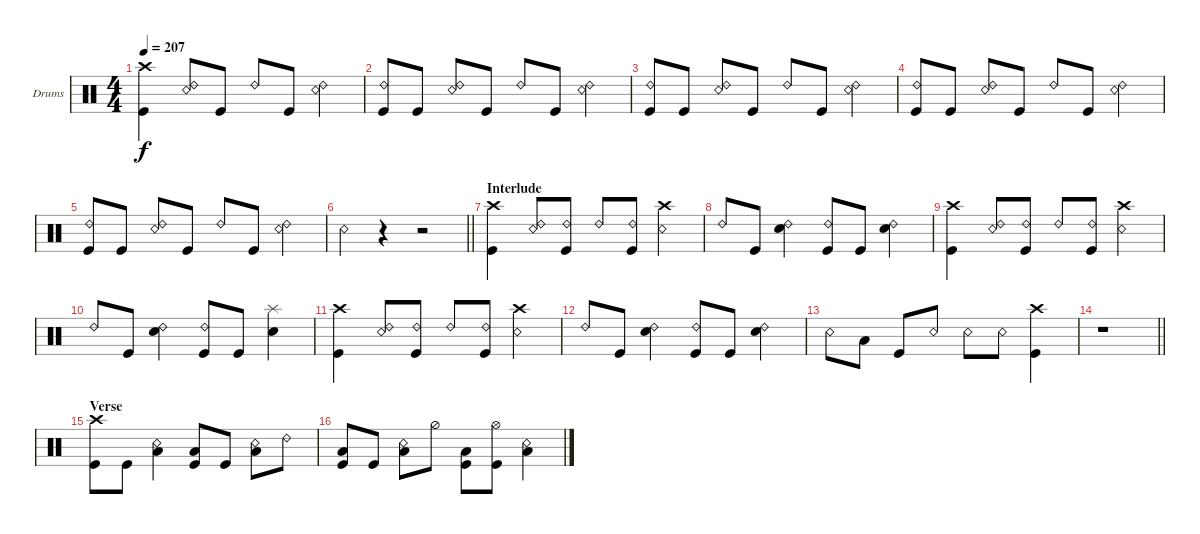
\defaultSystemsLayout 4
\bracketExtendMode groupsimilarinstruments
\firstSystemTrackNameOrientation horizontal
\otherSystemsTrackNameOrientation horizontal
\track ("Drums" "Drums") {instrument percussion}
\staff {score}
\articulation defaults
\ts (4 4)
\tempo 207
\clef neutral
\ks c
("Kick (hit)" "Crash high (hit)").4{dy f} ("Snare (rim shot)" "Ride (bell) 2").8 "Kick (hit)".8 "Ride (bell) 2".8 "Kick (hit)".8 ("Snare (rim shot)" "Ride (bell) 2").4 |
("Kick (hit)" "Ride (bell) 2").8 "Kick (hit)".8 ("Snare (rim shot)" "Ride (bell) 2").8 "Kick (hit)".8 "Ride (bell) 2".8 "Kick (hit)".8 ("Snare (rim shot)" "Ride (bell) 2").4 |
("Kick (hit)" "Ride (bell) 2").8 "Kick (hit)".8 ("Snare (rim shot)" "Ride (bell) 2").8 "Kick (hit)".8 "Ride (bell) 2".8 "Kick (hit)".8 ("Snare (rim shot)" "Ride (bell) 2").4 |
("Kick (hit)" "Ride (bell) 2").8 "Kick (hit)".8 ("Snare (rim shot)" "Ride (bell) 2").8 "Kick (hit)".8 "Ride (bell) 2".8 "Kick (hit)".8 ("Snare (rim shot)" "Ride (bell) 2").4 |
("Kick (hit)" "Ride (bell) 2").8 "Kick (hit)".8 ("Snare (rim shot)" "Ride (bell) 2").8 "Kick (hit)".8 "Ride (bell) 2".8 "Kick (hit)".8 ("Snare (rim shot)" "Ride (bell) 2").4 |
\barLineRight lightlight "Snare (rim shot)".4
r.4 r.2 |
\section ("" "Interlude")
("Crash high (hit)" "Kick (hit)").4 ("Snare (rim shot)" "Ride (bell) 2").8 ("Kick (hit)" "Ride (bell) 2").8 "Ride (bell) 2".8 ("Kick (hit)" "Ride (bell) 2").8 ("Snare (rim shot)" "Crash high (hit)").4 |
"Ride (bell) 2".8 "Kick (hit)".8 ("Ride (bell) 2" "Snare (hit) 2").4 ("Kick (hit)" "Ride (bell) 2").8 "Kick (hit)".8 ("Ride (bell) 2" "Snare (hit) 2").4 |
("Crash high (hit)" "Kick (hit)").4 ("Snare (rim shot)" "Ride (bell) 2").8 ("Kick (hit)" "Ride (bell) 2").8 "Ride (bell) 2".8 ("Kick (hit)" "Ride (bell) 2").8 ("Snare (rim shot)" "Crash high (hit)").4 |
"Ride (bell) 2".8 "Kick (hit)".8 ("Ride (bell) 2" "Snare (hit) 2").4 ("Kick (hit)" "Ride (bell) 2").8 "Kick (hit)".8 ("Snare (hit) 2" "Splash (hit)").4 |
("Crash high (hit)" "Kick (hit)").4 ("Snare (rim shot)" "Ride (bell) 2").8 ("Kick (hit)" "Ride (bell) 2").8 "Ride (bell) 2".8 ("Kick (hit)" "Ride (bell) 2").8 ("Snare (rim shot)" "Crash high (hit)").4 |
"Ride (bell) 2".8 "Kick (hit)".8 ("Ride (bell) 2" "Snare (hit) 2").4 ("Kick (hit)" "Ride (bell) 2").8 "Kick (hit)".8 ("Ride (bell) 2" "Snare (hit) 2").4 |
"Snare (rim shot)".8 "Low Tom (hit)".8 "Kick (hit)".8 "Snare (rim shot)".8 "Snare (rim shot)".8 "Snare (rim shot)".8 ("Kick (hit)" "Crash high (hit)").4 |
\barLineRight lightlight
r.1 |
\section ("" "Verse")
("Kick (hit)" "Crash high (hit)").8 "Kick (hit)".8 ("Snare (rim shot)" "Low Tom (hit)").4 ("Kick (hit)" "Low Tom (hit)").8 "Kick (hit)".8 ("Snare (rim shot)" "Low Tom (hit)").8 "Ride (bell) 2".8 |
("Kick (hit)" "Low Tom (hit)").8 "Kick (hit)".8 ("Snare (rim shot)" "Low Tom (hit)").8 "Hi-Hat (half)".8 ("Kick (hit)" "Low Tom (hit)").8 ("Kick (hit)" "Hi-Hat (open)").8 ("Snare (rim shot)" "Low Tom (hit)").4
